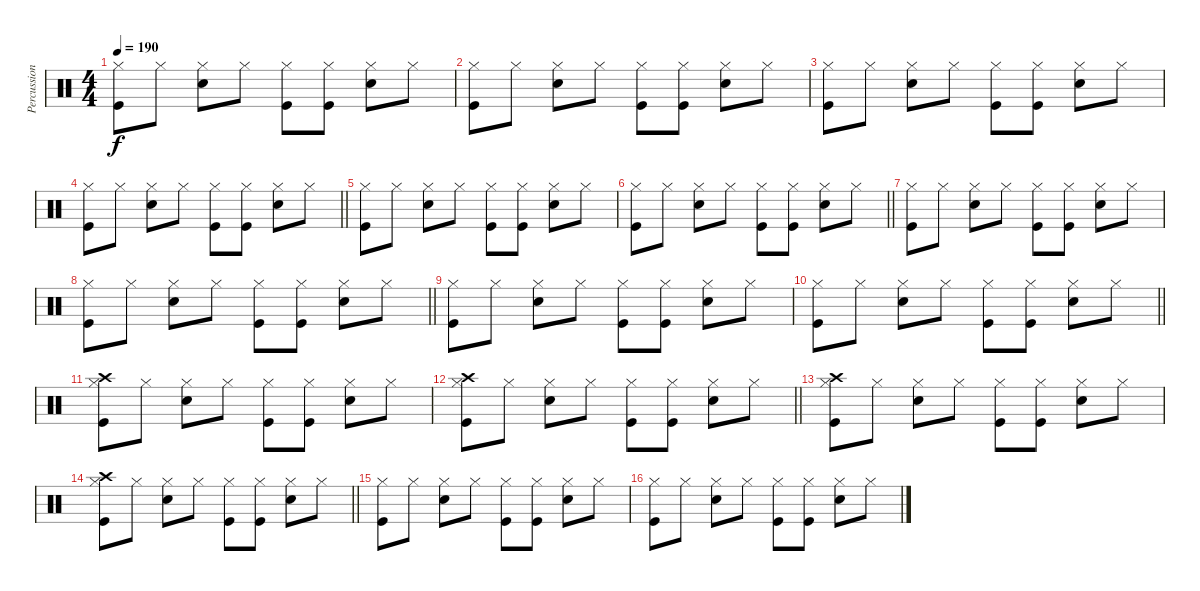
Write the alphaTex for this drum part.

\track ("Percussion" "Percussion") {instrument percussion}
\staff {score}
\articulation defaults
\ts (4 4)
\tempo 190
\clef neutral
\ks c
("Hi-Hat (closed)" "Kick (hit)").8{dy f} "Hi-Hat (closed)".8 ("Snare (hit) 2" "Hi-Hat (closed)").8 "Hi-Hat (closed)".8 ("Hi-Hat (closed)" "Kick (hit)").8 ("Hi-Hat (closed)" "Kick (hit)").8 ("Snare (hit) 2" "Hi-Hat (closed)").8 "Hi-Hat (closed)".8 |
("Hi-Hat (closed)" "Kick (hit)").8 "Hi-Hat (closed)".8 ("Snare (hit) 2" "Hi-Hat (closed)").8 "Hi-Hat (closed)".8 ("Hi-Hat (closed)" "Kick (hit)").8 ("Hi-Hat (closed)" "Kick (hit)").8 ("Snare (hit) 2" "Hi-Hat (closed)").8 "Hi-Hat (closed)".8 |
("Hi-Hat (closed)" "Kick (hit)").8 "Hi-Hat (closed)".8 ("Snare (hit) 2" "Hi-Hat (closed)").8 "Hi-Hat (closed)".8 ("Hi-Hat (closed)" "Kick (hit)").8 ("Hi-Hat (closed)" "Kick (hit)").8 ("Snare (hit) 2" "Hi-Hat (closed)").8 "Hi-Hat (closed)".8 |
\barLineRight lightlight
("Hi-Hat (closed)" "Kick (hit)").8 "Hi-Hat (closed)".8 ("Snare (hit) 2" "Hi-Hat (closed)").8 "Hi-Hat (closed)".8 ("Hi-Hat (closed)" "Kick (hit)").8 ("Hi-Hat (closed)" "Kick (hit)").8 ("Snare (hit) 2" "Hi-Hat (closed)").8 "Hi-Hat (closed)".8 |
("Hi-Hat (closed)" "Kick (hit)").8 "Hi-Hat (closed)".8 ("Snare (hit) 2" "Hi-Hat (closed)").8 "Hi-Hat (closed)".8 ("Hi-Hat (closed)" "Kick (hit)").8 ("Hi-Hat (closed)" "Kick (hit)").8 ("Snare (hit) 2" "Hi-Hat (closed)").8 "Hi-Hat (closed)".8 |
\barLineRight lightlight
("Hi-Hat (closed)" "Kick (hit)").8 "Hi-Hat (closed)".8 ("Snare (hit) 2" "Hi-Hat (closed)").8 "Hi-Hat (closed)".8 ("Hi-Hat (closed)" "Kick (hit)").8 ("Hi-Hat (closed)" "Kick (hit)").8 ("Snare (hit) 2" "Hi-Hat (closed)").8 "Hi-Hat (closed)".8 |
("Hi-Hat (closed)" "Kick (hit)").8 "Hi-Hat (closed)".8 ("Snare (hit) 2" "Hi-Hat (closed)").8 "Hi-Hat (closed)".8 ("Hi-Hat (closed)" "Kick (hit)").8 ("Hi-Hat (closed)" "Kick (hit)").8 ("Snare (hit) 2" "Hi-Hat (closed)").8 "Hi-Hat (closed)".8 |
\barLineRight lightlight
("Hi-Hat (closed)" "Kick (hit)").8 "Hi-Hat (closed)".8 ("Snare (hit) 2" "Hi-Hat (closed)").8 "Hi-Hat (closed)".8 ("Hi-Hat (closed)" "Kick (hit)").8 ("Hi-Hat (closed)" "Kick (hit)").8 ("Snare (hit) 2" "Hi-Hat (closed)").8 "Hi-Hat (closed)".8 |
("Hi-Hat (closed)" "Kick (hit)").8 "Hi-Hat (closed)".8 ("Snare (hit) 2" "Hi-Hat (closed)").8 "Hi-Hat (closed)".8 ("Hi-Hat (closed)" "Kick (hit)").8 ("Hi-Hat (closed)" "Kick (hit)").8 ("Snare (hit) 2" "Hi-Hat (closed)").8 "Hi-Hat (closed)".8 |
\barLineRight lightlight
("Hi-Hat (closed)" "Kick (hit)").8 "Hi-Hat (closed)".8 ("Snare (hit) 2" "Hi-Hat (closed)").8 "Hi-Hat (closed)".8 ("Hi-Hat (closed)" "Kick (hit)").8 ("Hi-Hat (closed)" "Kick (hit)").8 ("Snare (hit) 2" "Hi-Hat (closed)").8 "Hi-Hat (closed)".8 |
("Crash high (hit)" "Hi-Hat (closed)" "Kick (hit)").8 "Hi-Hat (closed)".8 ("Snare (hit) 2" "Hi-Hat (closed)").8 "Hi-Hat (closed)".8 ("Hi-Hat (closed)" "Kick (hit)").8 ("Hi-Hat (closed)" "Kick (hit)").8 ("Snare (hit) 2" "Hi-Hat (closed)").8 "Hi-Hat (closed)".8 |
\barLineRight lightlight
("Crash high (hit)" "Hi-Hat (closed)" "Kick (hit)").8 "Hi-Hat (closed)".8 ("Snare (hit) 2" "Hi-Hat (closed)").8 "Hi-Hat (closed)".8 ("Hi-Hat (closed)" "Kick (hit)").8 ("Hi-Hat (closed)" "Kick (hit)").8 ("Snare (hit) 2" "Hi-Hat (closed)").8 "Hi-Hat (closed)".8 |
("Crash high (hit)" "Hi-Hat (closed)" "Kick (hit)").8 "Hi-Hat (closed)".8 ("Snare (hit) 2" "Hi-Hat (closed)").8 "Hi-Hat (closed)".8 ("Hi-Hat (closed)" "Kick (hit)").8 ("Hi-Hat (closed)" "Kick (hit)").8 ("Snare (hit) 2" "Hi-Hat (closed)").8 "Hi-Hat (closed)".8 |
\barLineRight lightlight
("Crash high (hit)" "Hi-Hat (closed)" "Kick (hit)").8 "Hi-Hat (closed)".8 ("Snare (hit) 2" "Hi-Hat (closed)").8 "Hi-Hat (closed)".8 ("Hi-Hat (closed)" "Kick (hit)").8 ("Hi-Hat (closed)" "Kick (hit)").8 ("Snare (hit) 2" "Hi-Hat (closed)").8 "Hi-Hat (closed)".8 |
("Hi-Hat (closed)" "Kick (hit)").8 "Hi-Hat (closed)".8 ("Snare (hit) 2" "Hi-Hat (closed)").8 "Hi-Hat (closed)".8 ("Hi-Hat (closed)" "Kick (hit)").8 ("Hi-Hat (closed)" "Kick (hit)").8 ("Snare (hit) 2" "Hi-Hat (closed)").8 "Hi-Hat (closed)".8 |
("Hi-Hat (closed)" "Kick (hit)").8 "Hi-Hat (closed)".8 ("Snare (hit) 2" "Hi-Hat (closed)").8 "Hi-Hat (closed)".8 ("Hi-Hat (closed)" "Kick (hit)").8 ("Hi-Hat (closed)" "Kick (hit)").8 ("Snare (hit) 2" "Hi-Hat (closed)").8 "Hi-Hat (closed)".8
